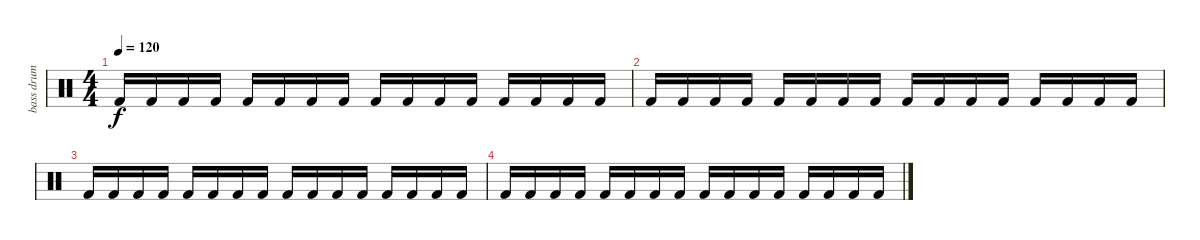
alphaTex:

\track ("bass drum" "bass drum") {instrument percussion}
\staff {score}
\articulation defaults
\ts (4 4)
\tempo 120
\clef neutral
\ks c "Kick (hit) 2".16{dy f} "Kick (hit) 2".16 "Kick (hit) 2".16 "Kick (hit) 2".16 "Kick (hit) 2".16 "Kick (hit) 2".16 "Kick (hit) 2".16 "Kick (hit) 2".16 "Kick (hit) 2".16 "Kick (hit) 2".16 "Kick (hit) 2".16 "Kick (hit) 2".16 "Kick (hit) 2".16 "Kick (hit) 2".16 "Kick (hit) 2".16 "Kick (hit) 2".16
|
"Kick (hit) 2".16 "Kick (hit) 2".16 "Kick (hit) 2".16 "Kick (hit) 2".16 "Kick (hit) 2".16 "Kick (hit) 2".16 "Kick (hit) 2".16 "Kick (hit) 2".16 "Kick (hit) 2".16 "Kick (hit) 2".16 "Kick (hit) 2".16 "Kick (hit) 2".16 "Kick (hit) 2".16 "Kick (hit) 2".16 "Kick (hit) 2".16 "Kick (hit) 2".16 |
"Kick (hit) 2".16 "Kick (hit) 2".16 "Kick (hit) 2".16 "Kick (hit) 2".16 "Kick (hit) 2".16 "Kick (hit) 2".16 "Kick (hit) 2".16 "Kick (hit) 2".16 "Kick (hit) 2".16 "Kick (hit) 2".16 "Kick (hit) 2".16 "Kick (hit) 2".16 "Kick (hit) 2".16 "Kick (hit) 2".16 "Kick (hit) 2".16 "Kick (hit) 2".16 |
"Kick (hit) 2".16 "Kick (hit) 2".16 "Kick (hit) 2".16 "Kick (hit) 2".16 "Kick (hit) 2".16 "Kick (hit) 2".16 "Kick (hit) 2".16 "Kick (hit) 2".16 "Kick (hit) 2".16 "Kick (hit) 2".16 "Kick (hit) 2".16 "Kick (hit) 2".16 "Kick (hit) 2".16 "Kick (hit) 2".16 "Kick (hit) 2".16 "Kick (hit) 2".16
